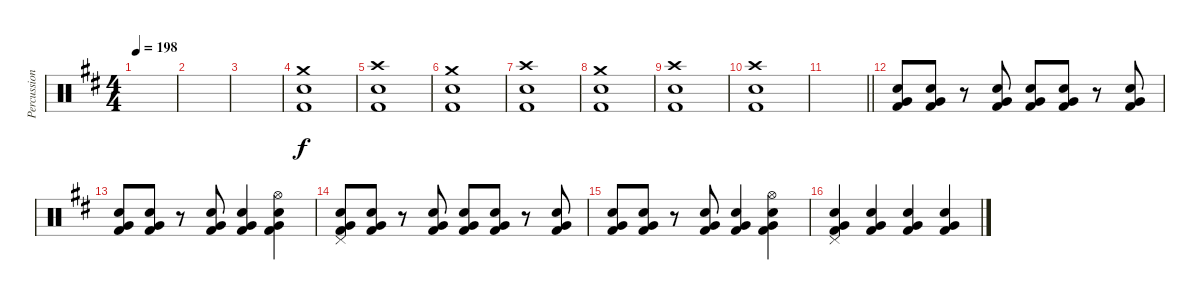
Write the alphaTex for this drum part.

\track ("Percussion" "Percussion") {instrument percussion}
\staff {score}
\articulation defaults
\ts (4 4)
\tempo 198
\clef neutral
\ks bminor
|
|
|
("Crash medium (hit)" "Snare (hit) 2" "Kick (hit) 2").1 |
("Crash high (hit)" "Snare (hit) 2" "Kick (hit) 2").1 |
("Crash medium (hit)" "Snare (hit) 2" "Kick (hit) 2").1 |
("Crash high (hit)" "Snare (hit) 2" "Kick (hit) 2").1 |
("Crash medium (hit)" "Snare (hit) 2" "Kick (hit) 2").1 |
("Crash high (hit)" "Snare (hit) 2" "Kick (hit) 2").1 |
("Crash high (hit)" "Snare (hit) 2" "Kick (hit) 2").1 |
\barLineRight lightlight
|
("Snare (hit) 2" "Very Low Tom (hit)" "Kick (hit) 2").8 ("Snare (hit) 2" "Very Low Tom (hit)" "Kick (hit) 2").8 r.8 ("Snare (hit) 2" "Very Low Tom (hit)" "Kick (hit) 2").8 ("Snare (hit) 2" "Very Low Tom (hit)" "Kick (hit) 2").8 ("Snare (hit) 2" "Very Low Tom (hit)" "Kick (hit) 2").8 r.8 ("Snare (hit) 2" "Very Low Tom (hit)" "Kick (hit) 2").8 |
("Snare (hit) 2" "Very Low Tom (hit)" "Kick (hit) 2").8 ("Snare (hit) 2" "Very Low Tom (hit)" "Kick (hit) 2").8 r.8 ("Snare (hit) 2" "Very Low Tom (hit)" "Kick (hit) 2").8 ("Snare (hit) 2" "Very Low Tom (hit)" "Kick (hit) 2").4 ("Hi-Hat (open)" "Snare (hit) 2" "Very Low Tom (hit)" "Kick (hit) 2").4 |
("Pedal Hi-Hat (hit)" "Snare (hit) 2" "Very Low Tom (hit)" "Kick (hit) 2").8 ("Snare (hit) 2" "Very Low Tom (hit)" "Kick (hit) 2").8 r.8 ("Snare (hit) 2" "Very Low Tom (hit)" "Kick (hit) 2").8 ("Snare (hit) 2" "Very Low Tom (hit)" "Kick (hit) 2").8 ("Snare (hit) 2" "Very Low Tom (hit)" "Kick (hit) 2").8 r.8 ("Snare (hit) 2" "Very Low Tom (hit)" "Kick (hit) 2").8 |
("Snare (hit) 2" "Very Low Tom (hit)" "Kick (hit) 2").8 ("Snare (hit) 2" "Very Low Tom (hit)" "Kick (hit) 2").8 r.8 ("Snare (hit) 2" "Very Low Tom (hit)" "Kick (hit) 2").8 ("Snare (hit) 2" "Very Low Tom (hit)" "Kick (hit) 2").4 ("Hi-Hat (open)" "Snare (hit) 2" "Very Low Tom (hit)" "Kick (hit) 2").4 |
("Pedal Hi-Hat (hit)" "Snare (hit) 2" "Very Low Tom (hit)" "Kick (hit) 2").4 ("Snare (hit) 2" "Very Low Tom (hit)" "Kick (hit) 2").4 ("Snare (hit) 2" "Very Low Tom (hit)" "Kick (hit) 2").4 ("Snare (hit) 2" "Very Low Tom (hit)" "Kick (hit) 2").4
